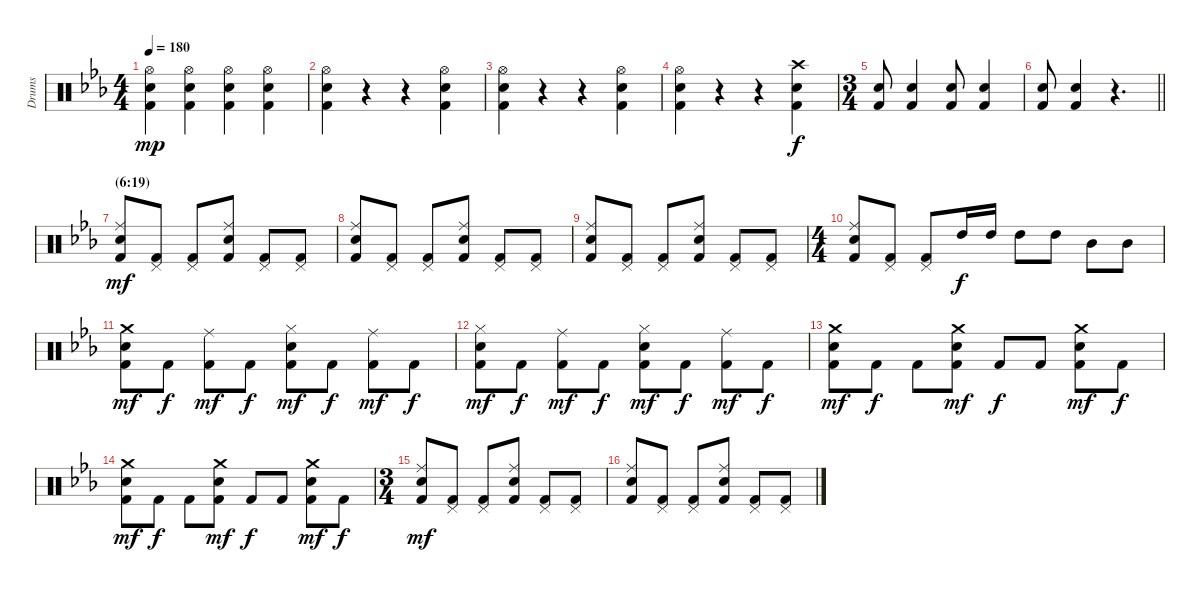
\track ("Drums" "Drums") {instrument percussion}
\staff {score}
\articulation defaults
\ts (4 4)
\tempo 180
\clef neutral
\ks eb
("Hi-Hat (open)" "Electric Snare (hit)" "Kick (hit) 2").4{dy mp} ("Hi-Hat (open)" "Electric Snare (hit)" "Kick (hit) 2").4 ("Hi-Hat (open)" "Electric Snare (hit)" "Kick (hit) 2").4 ("Hi-Hat (open)" "Electric Snare (hit)" "Kick (hit) 2").4 |
("Hi-Hat (open)" "Electric Snare (hit)" "Kick (hit) 2").4 r.4 r.4 ("Hi-Hat (open)" "Electric Snare (hit)" "Kick (hit) 2").4 |
("Hi-Hat (open)" "Electric Snare (hit)" "Kick (hit) 2").4 r.4 r.4 ("Hi-Hat (open)" "Electric Snare (hit)" "Kick (hit) 2").4 |
("Hi-Hat (open)" "Electric Snare (hit)" "Kick (hit) 2").4 r.4 r.4 ("Crash high (hit)" "Electric Snare (hit)" "Kick (hit) 2").4{dy f} |
\ts (3 4)
("Electric Snare (hit)" "Kick (hit) 2").8 ("Electric Snare (hit)" "Kick (hit) 2").4 ("Electric Snare (hit)" "Kick (hit) 2").8 ("Electric Snare (hit)" "Kick (hit) 2").4 |
\barLineRight lightlight
("Electric Snare (hit)" "Kick (hit) 2").8 ("Electric Snare (hit)" "Kick (hit) 2").4 r.4{d} |
\section ("" "(6:19)")
("Ride (middle)" "Electric Snare (hit)" "Kick (hit) 2").8{dy mf} ("Pedal Hi-Hat (hit)" "Kick (hit) 2").8 ("Pedal Hi-Hat (hit)" "Kick (hit) 2").8 ("Ride (middle)" "Electric Snare (hit)" "Kick (hit) 2").8 ("Pedal Hi-Hat (hit)" "Kick (hit) 2").8 ("Pedal Hi-Hat (hit)" "Kick (hit) 2").8 |
("Ride (middle)" "Electric Snare (hit)" "Kick (hit) 2").8 ("Pedal Hi-Hat (hit)" "Kick (hit) 2").8 ("Pedal Hi-Hat (hit)" "Kick (hit) 2").8 ("Ride (middle)" "Electric Snare (hit)" "Kick (hit) 2").8 ("Pedal Hi-Hat (hit)" "Kick (hit) 2").8 ("Pedal Hi-Hat (hit)" "Kick (hit) 2").8 |
("Ride (middle)" "Electric Snare (hit)" "Kick (hit) 2").8 ("Pedal Hi-Hat (hit)" "Kick (hit) 2").8 ("Pedal Hi-Hat (hit)" "Kick (hit) 2").8 ("Ride (middle)" "Electric Snare (hit)" "Kick (hit) 2").8 ("Pedal Hi-Hat (hit)" "Kick (hit) 2").8 ("Pedal Hi-Hat (hit)" "Kick (hit) 2").8 |
\ts (4 4)
("Ride (middle)" "Electric Snare (hit)" "Kick (hit) 2").8 ("Pedal Hi-Hat (hit)" "Kick (hit) 2").8 ("Pedal Hi-Hat (hit)" "Kick (hit) 2").8 "High Tom (hit)".16{dy f} "High Tom (hit)".16 "High Tom (hit)".8 "High Tom (hit)".8 "Mid Tom (hit)".8 "Mid Tom (hit)".8 |
("Crash medium (hit)" "Electric Snare (hit)" "Kick (hit) 2").8{dy mf} "Kick (hit) 2".8{dy f} ("Ride (middle)" "Kick (hit) 2").8{dy mf} "Kick (hit) 2".8{dy f} ("Hi-Hat (closed)" "Electric Snare (hit)" "Kick (hit) 2").8{dy mf} "Kick (hit) 2".8{dy f} ("Ride (middle)" "Kick (hit) 2").8{dy mf} "Kick (hit) 2".8{dy f} |
("Hi-Hat (closed)" "Electric Snare (hit)" "Kick (hit) 2").8{dy mf} "Kick (hit) 2".8{dy f} ("Ride (middle)" "Kick (hit) 2").8{dy mf} "Kick (hit) 2".8{dy f} ("Hi-Hat (closed)" "Electric Snare (hit)" "Kick (hit) 2").8{dy mf} "Kick (hit) 2".8{dy f} ("Ride (middle)" "Kick (hit) 2").8{dy mf} "Kick (hit) 2".8{dy f} |
("Crash medium (hit)" "Electric Snare (hit)" "Kick (hit) 2").8{dy mf} "Kick (hit) 2".8{dy f} "Kick (hit) 2".8 ("Crash medium (hit)" "Electric Snare (hit)" "Kick (hit) 2").8{dy mf} "Kick (hit) 2".8{dy f} "Kick (hit) 2".8 ("Crash medium (hit)" "Electric Snare (hit)" "Kick (hit) 2").8{dy mf} "Kick (hit) 2".8{dy f} |
("Crash medium (hit)" "Electric Snare (hit)" "Kick (hit) 2").8{dy mf} "Kick (hit) 2".8{dy f} "Kick (hit) 2".8 ("Crash medium (hit)" "Electric Snare (hit)" "Kick (hit) 2").8{dy mf} "Kick (hit) 2".8{dy f} "Kick (hit) 2".8 ("Crash medium (hit)" "Electric Snare (hit)" "Kick (hit) 2").8{dy mf} "Kick (hit) 2".8{dy f} |
\ts (3 4)
("Ride (middle)" "Electric Snare (hit)" "Kick (hit) 2").8{dy mf} ("Pedal Hi-Hat (hit)" "Kick (hit) 2").8 ("Pedal Hi-Hat (hit)" "Kick (hit) 2").8 ("Ride (middle)" "Electric Snare (hit)" "Kick (hit) 2").8 ("Pedal Hi-Hat (hit)" "Kick (hit) 2").8 ("Pedal Hi-Hat (hit)" "Kick (hit) 2").8 |
("Ride (middle)" "Electric Snare (hit)" "Kick (hit) 2").8 ("Pedal Hi-Hat (hit)" "Kick (hit) 2").8 ("Pedal Hi-Hat (hit)" "Kick (hit) 2").8 ("Ride (middle)" "Electric Snare (hit)" "Kick (hit) 2").8 ("Pedal Hi-Hat (hit)" "Kick (hit) 2").8 ("Pedal Hi-Hat (hit)" "Kick (hit) 2").8
